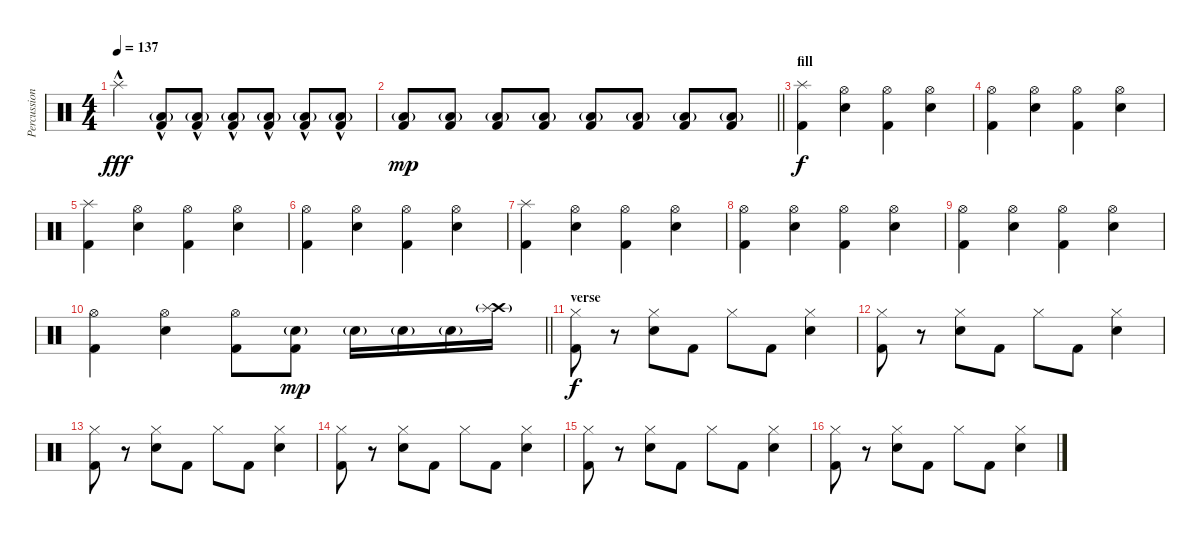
\track ("Percussion" "Percussion") {instrument percussion}
\staff {score}
\articulation defaults
\ts (4 4)
\tempo 137
\clef neutral
\ks c "Splash (hit)"{hac}.4{dy fff}
("Low Floor Tom (hit)"{g} "Kick (hit) 2"{hac}).8 ("Low Floor Tom (hit)"{g} "Kick (hit) 2"{hac}).8 ("Low Floor Tom (hit)"{g} "Kick (hit) 2"{hac}).8 ("Low Floor Tom (hit)"{g} "Kick (hit) 2"{hac}).8 ("Low Floor Tom (hit)"{g} "Kick (hit) 2"{hac}).8 ("Low Floor Tom (hit)"{g} "Kick (hit) 2"{hac}).8 |
\barLineRight lightlight
("Low Floor Tom (hit)"{g} "Kick (hit) 2").8{dy mp volume 16} ("Low Floor Tom (hit)"{g} "Kick (hit) 2").8 ("Low Floor Tom (hit)"{g} "Kick (hit) 2").8 ("Low Floor Tom (hit)"{g} "Kick (hit) 2").8 ("Low Floor Tom (hit)"{g} "Kick (hit) 2").8 ("Low Floor Tom (hit)"{g} "Kick (hit) 2").8 ("Low Floor Tom (hit)"{g} "Kick (hit) 2").8 ("Low Floor Tom (hit)"{g} "Kick (hit) 2").8 |
\section ("" "fill")
("Splash (hit)" "Kick (hit) 2").4{dy f} ("Hi-Hat (open)" "Snare (hit) 2").4 ("Hi-Hat (open)" "Kick (hit) 2").4 ("Hi-Hat (open)" "Snare (hit) 2").4 |
("Hi-Hat (open)" "Kick (hit) 2").4 ("Hi-Hat (open)" "Snare (hit) 2").4 ("Hi-Hat (open)" "Kick (hit) 2").4 ("Hi-Hat (open)" "Snare (hit) 2").4 |
("Splash (hit)" "Kick (hit) 2").4 ("Hi-Hat (open)" "Snare (hit) 2").4 ("Hi-Hat (open)" "Kick (hit) 2").4 ("Hi-Hat (open)" "Snare (hit) 2").4 |
("Hi-Hat (open)" "Kick (hit) 2").4 ("Hi-Hat (open)" "Snare (hit) 2").4 ("Hi-Hat (open)" "Kick (hit) 2").4 ("Hi-Hat (open)" "Snare (hit) 2").4 |
("Splash (hit)" "Kick (hit) 2").4 ("Hi-Hat (open)" "Snare (hit) 2").4 ("Hi-Hat (open)" "Kick (hit) 2").4 ("Hi-Hat (open)" "Snare (hit) 2").4 |
("Hi-Hat (open)" "Kick (hit) 2").4 ("Hi-Hat (open)" "Snare (hit) 2").4 ("Hi-Hat (open)" "Kick (hit) 2").4 ("Hi-Hat (open)" "Snare (hit) 2").4 |
("Hi-Hat (open)" "Kick (hit) 2").4 ("Hi-Hat (open)" "Snare (hit) 2").4 ("Hi-Hat (open)" "Kick (hit) 2").4 ("Hi-Hat (open)" "Snare (hit) 2").4 |
\barLineRight lightlight
("Hi-Hat (open)" "Kick (hit) 2").4 ("Hi-Hat (open)" "Snare (hit) 2").4 ("Hi-Hat (open)" "Kick (hit) 2").8 ("Snare (hit) 2"{g} "Kick (hit) 2").8{dy mp} "Snare (hit) 2"{g}.16 "Snare (hit) 2"{g}.16 "Snare (hit) 2"{g}.16 ("Crash high (hit)"{g} "Splash (hit)").16 |
\section ("" "verse")
("Hi-Hat (closed)" "Kick (hit) 2").8{dy f} r.8 ("Hi-Hat (closed)" "Snare (hit) 2").8 "Kick (hit) 2".8 "Hi-Hat (closed)".8 "Kick (hit) 2".8 ("Hi-Hat (closed)" "Snare (hit) 2").4 |
("Hi-Hat (closed)" "Kick (hit) 2").8 r.8 ("Hi-Hat (closed)" "Snare (hit) 2").8 "Kick (hit) 2".8 "Hi-Hat (closed)".8 "Kick (hit) 2".8 ("Hi-Hat (closed)" "Snare (hit) 2").4 |
("Hi-Hat (closed)" "Kick (hit) 2").8 r.8 ("Hi-Hat (closed)" "Snare (hit) 2").8 "Kick (hit) 2".8 "Hi-Hat (closed)".8 "Kick (hit) 2".8 ("Hi-Hat (closed)" "Snare (hit) 2").4 |
("Hi-Hat (closed)" "Kick (hit) 2").8 r.8 ("Hi-Hat (closed)" "Snare (hit) 2").8 "Kick (hit) 2".8 "Hi-Hat (closed)".8 "Kick (hit) 2".8 ("Hi-Hat (closed)" "Snare (hit) 2").4 |
("Hi-Hat (closed)" "Kick (hit) 2").8 r.8 ("Hi-Hat (closed)" "Snare (hit) 2").8 "Kick (hit) 2".8 "Hi-Hat (closed)".8 "Kick (hit) 2".8 ("Hi-Hat (closed)" "Snare (hit) 2").4 |
("Hi-Hat (closed)" "Kick (hit) 2").8 r.8 ("Hi-Hat (closed)" "Snare (hit) 2").8 "Kick (hit) 2".8 "Hi-Hat (closed)".8 "Kick (hit) 2".8 ("Hi-Hat (closed)" "Snare (hit) 2").4
